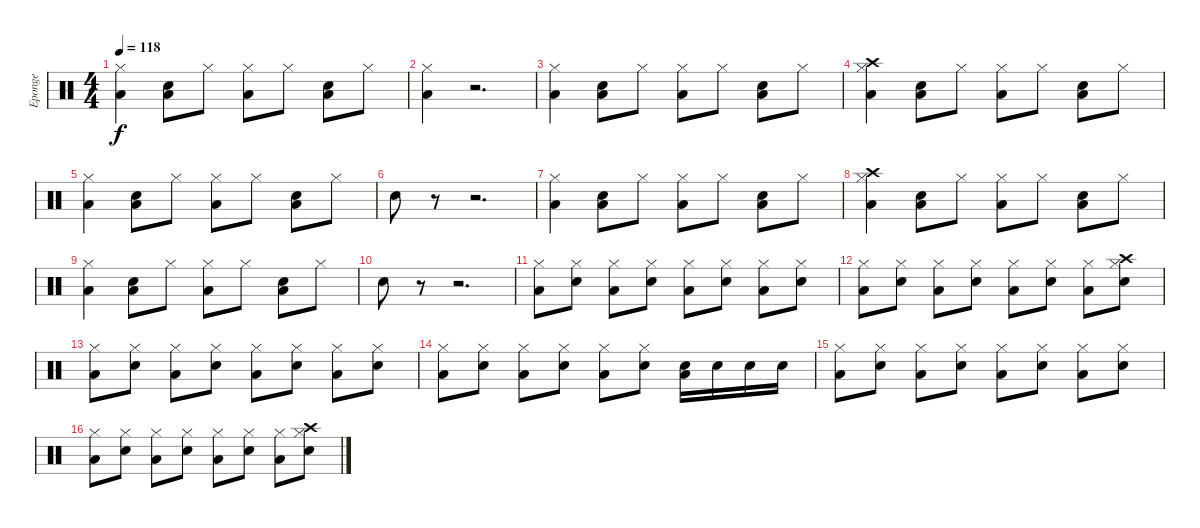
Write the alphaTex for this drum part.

\track ("Eponge" "Eponge") {instrument percussion}
\staff {score}
\articulation defaults
\ts (4 4)
\tempo 118
\clef neutral
\ks c
("Low Floor Tom (hit)" "Hi-Hat (closed)").4{dy f} ("Low Floor Tom (hit)" "Snare (hit) 2").8 "Hi-Hat (closed)".8 ("Low Floor Tom (hit)" "Hi-Hat (closed)").8 "Hi-Hat (closed)".8 ("Low Floor Tom (hit)" "Snare (hit) 2").8 "Hi-Hat (closed)".8 |
("Low Floor Tom (hit)" "Hi-Hat (closed)").4 r.2{d} |
("Low Floor Tom (hit)" "Hi-Hat (closed)").4 ("Low Floor Tom (hit)" "Snare (hit) 2").8 "Hi-Hat (closed)".8 ("Low Floor Tom (hit)" "Hi-Hat (closed)").8 "Hi-Hat (closed)".8 ("Low Floor Tom (hit)" "Snare (hit) 2").8 "Hi-Hat (closed)".8 |
("Crash high (hit)" "Low Floor Tom (hit)" "Hi-Hat (closed)").4 ("Low Floor Tom (hit)" "Snare (hit) 2").8 "Hi-Hat (closed)".8 ("Low Floor Tom (hit)" "Hi-Hat (closed)").8 "Hi-Hat (closed)".8 ("Low Floor Tom (hit)" "Snare (hit) 2").8 "Hi-Hat (closed)".8 |
("Low Floor Tom (hit)" "Hi-Hat (closed)").4 ("Low Floor Tom (hit)" "Snare (hit) 2").8 "Hi-Hat (closed)".8 ("Low Floor Tom (hit)" "Hi-Hat (closed)").8 "Hi-Hat (closed)".8 ("Low Floor Tom (hit)" "Snare (hit) 2").8 "Hi-Hat (closed)".8 |
"Snare (hit) 2".8 r.8 r.2{d} |
("Low Floor Tom (hit)" "Hi-Hat (closed)").4 ("Low Floor Tom (hit)" "Snare (hit) 2").8 "Hi-Hat (closed)".8 ("Low Floor Tom (hit)" "Hi-Hat (closed)").8 "Hi-Hat (closed)".8 ("Low Floor Tom (hit)" "Snare (hit) 2").8 "Hi-Hat (closed)".8 |
("Crash high (hit)" "Low Floor Tom (hit)" "Hi-Hat (closed)").4 ("Low Floor Tom (hit)" "Snare (hit) 2").8 "Hi-Hat (closed)".8 ("Low Floor Tom (hit)" "Hi-Hat (closed)").8 "Hi-Hat (closed)".8 ("Low Floor Tom (hit)" "Snare (hit) 2").8 "Hi-Hat (closed)".8 |
("Low Floor Tom (hit)" "Hi-Hat (closed)").4 ("Low Floor Tom (hit)" "Snare (hit) 2").8 "Hi-Hat (closed)".8 ("Low Floor Tom (hit)" "Hi-Hat (closed)").8 "Hi-Hat (closed)".8 ("Low Floor Tom (hit)" "Snare (hit) 2").8 "Hi-Hat (closed)".8 |
"Snare (hit) 2".8 r.8 r.2{d} |
("Low Floor Tom (hit)" "Hi-Hat (closed)").8 ("Hi-Hat (closed)" "Snare (hit) 2").8 ("Low Floor Tom (hit)" "Hi-Hat (closed)").8 ("Hi-Hat (closed)" "Snare (hit) 2").8 ("Low Floor Tom (hit)" "Hi-Hat (closed)").8 ("Hi-Hat (closed)" "Snare (hit) 2").8 ("Low Floor Tom (hit)" "Hi-Hat (closed)").8 ("Hi-Hat (closed)" "Snare (hit) 2").8 |
("Low Floor Tom (hit)" "Hi-Hat (closed)").8 ("Hi-Hat (closed)" "Snare (hit) 2").8 ("Low Floor Tom (hit)" "Hi-Hat (closed)").8 ("Hi-Hat (closed)" "Snare (hit) 2").8 ("Low Floor Tom (hit)" "Hi-Hat (closed)").8 ("Hi-Hat (closed)" "Snare (hit) 2").8 ("Low Floor Tom (hit)" "Hi-Hat (closed)").8 ("Crash high (hit)" "Hi-Hat (closed)" "Snare (hit) 2").8 |
("Low Floor Tom (hit)" "Hi-Hat (closed)").8 ("Hi-Hat (closed)" "Snare (hit) 2").8 ("Low Floor Tom (hit)" "Hi-Hat (closed)").8 ("Hi-Hat (closed)" "Snare (hit) 2").8 ("Low Floor Tom (hit)" "Hi-Hat (closed)").8 ("Hi-Hat (closed)" "Snare (hit) 2").8 ("Low Floor Tom (hit)" "Hi-Hat (closed)").8 ("Hi-Hat (closed)" "Snare (hit) 2").8 |
("Low Floor Tom (hit)" "Hi-Hat (closed)").8 ("Hi-Hat (closed)" "Snare (hit) 2").8 ("Low Floor Tom (hit)" "Hi-Hat (closed)").8 ("Hi-Hat (closed)" "Snare (hit) 2").8 ("Low Floor Tom (hit)" "Hi-Hat (closed)").8 ("Hi-Hat (closed)" "Snare (hit) 2").8 ("Low Floor Tom (hit)" "Snare (hit) 2").16 "Snare (hit) 2".16 "Snare (hit) 2".16 "Snare (hit) 2".16 |
("Low Floor Tom (hit)" "Hi-Hat (closed)").8 ("Hi-Hat (closed)" "Snare (hit) 2").8 ("Low Floor Tom (hit)" "Hi-Hat (closed)").8 ("Hi-Hat (closed)" "Snare (hit) 2").8 ("Low Floor Tom (hit)" "Hi-Hat (closed)").8 ("Hi-Hat (closed)" "Snare (hit) 2").8 ("Low Floor Tom (hit)" "Hi-Hat (closed)").8 ("Hi-Hat (closed)" "Snare (hit) 2").8 |
("Low Floor Tom (hit)" "Hi-Hat (closed)").8 ("Hi-Hat (closed)" "Snare (hit) 2").8 ("Low Floor Tom (hit)" "Hi-Hat (closed)").8 ("Hi-Hat (closed)" "Snare (hit) 2").8 ("Low Floor Tom (hit)" "Hi-Hat (closed)").8 ("Hi-Hat (closed)" "Snare (hit) 2").8 ("Low Floor Tom (hit)" "Hi-Hat (closed)").8 ("Crash high (hit)" "Hi-Hat (closed)" "Snare (hit) 2").8
